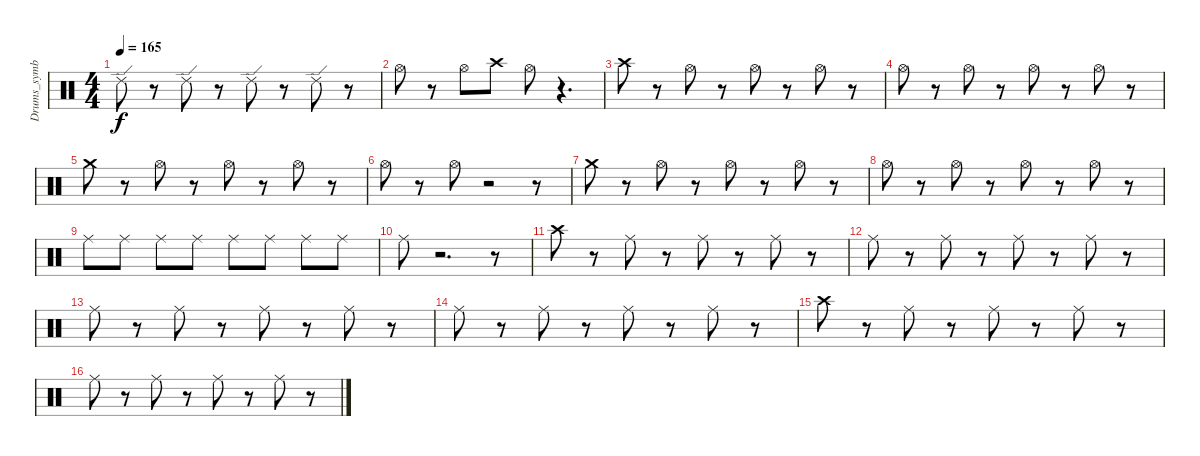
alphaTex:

\track ("Drums_symbal" "Drums_symb") {instrument percussion}
\staff {score}
\articulation defaults
\ts (4 4)
\tempo 165
\clef neutral
\ks c "Ride (edge) 2".8{dy f}
r.8 "Ride (edge) 2".8 r.8 "Ride (edge) 2".8 r.8 "Ride (edge) 2".8 r.8 |
"Hi-Hat (open)".8 r.8 "Hi-Hat (open)".8 "Crash high (hit)".8 "Hi-Hat (open)".8 r.4{d} |
"Crash high (hit)".8 r.8 "Hi-Hat (open)".8 r.8 "Hi-Hat (open)".8 r.8 "Hi-Hat (open)".8 r.8 |
"Hi-Hat (open)".8 r.8 "Hi-Hat (open)".8 r.8 "Hi-Hat (open)".8 r.8 "Hi-Hat (open)".8 r.8 |
"Crash medium (hit)".8 r.8 "Hi-Hat (open)".8 r.8 "Hi-Hat (open)".8 r.8 "Hi-Hat (open)".8 r.8 |
"Hi-Hat (open)".8 r.8 "Hi-Hat (open)".8 r.2 r.8 |
"Crash medium (hit)".8 r.8 "Hi-Hat (open)".8 r.8 "Hi-Hat (open)".8 r.8 "Hi-Hat (open)".8 r.8 |
"Hi-Hat (open)".8 r.8 "Hi-Hat (open)".8 r.8 "Hi-Hat (open)".8 r.8 "Hi-Hat (open)".8 r.8 |
"Ride (middle)".8 "Ride (middle)".8 "Ride (middle)".8 "Ride (middle)".8 "Ride (middle)".8 "Ride (middle)".8 "Ride (middle)".8 "Ride (middle)".8 |
"Ride (middle)".8 r.2{d} r.8 |
"Crash high (hit)".8 r.8 "Ride (middle)".8 r.8 "Ride (middle)".8 r.8 "Ride (middle)".8 r.8 |
"Ride (middle)".8 r.8 "Ride (middle)".8 r.8 "Ride (middle)".8 r.8 "Ride (middle)".8 r.8 |
"Ride (middle)".8 r.8 "Ride (middle)".8 r.8 "Ride (middle)".8 r.8 "Ride (middle)".8 r.8 |
"Ride (middle)".8 r.8 "Ride (middle)".8 r.8 "Ride (middle)".8 r.8 "Ride (middle)".8 r.8 |
"Crash high (hit)".8 r.8 "Ride (middle)".8 r.8 "Ride (middle)".8 r.8 "Ride (middle)".8 r.8 |
"Ride (middle)".8 r.8 "Ride (middle)".8 r.8 "Ride (middle)".8 r.8 "Ride (middle)".8 r.8
